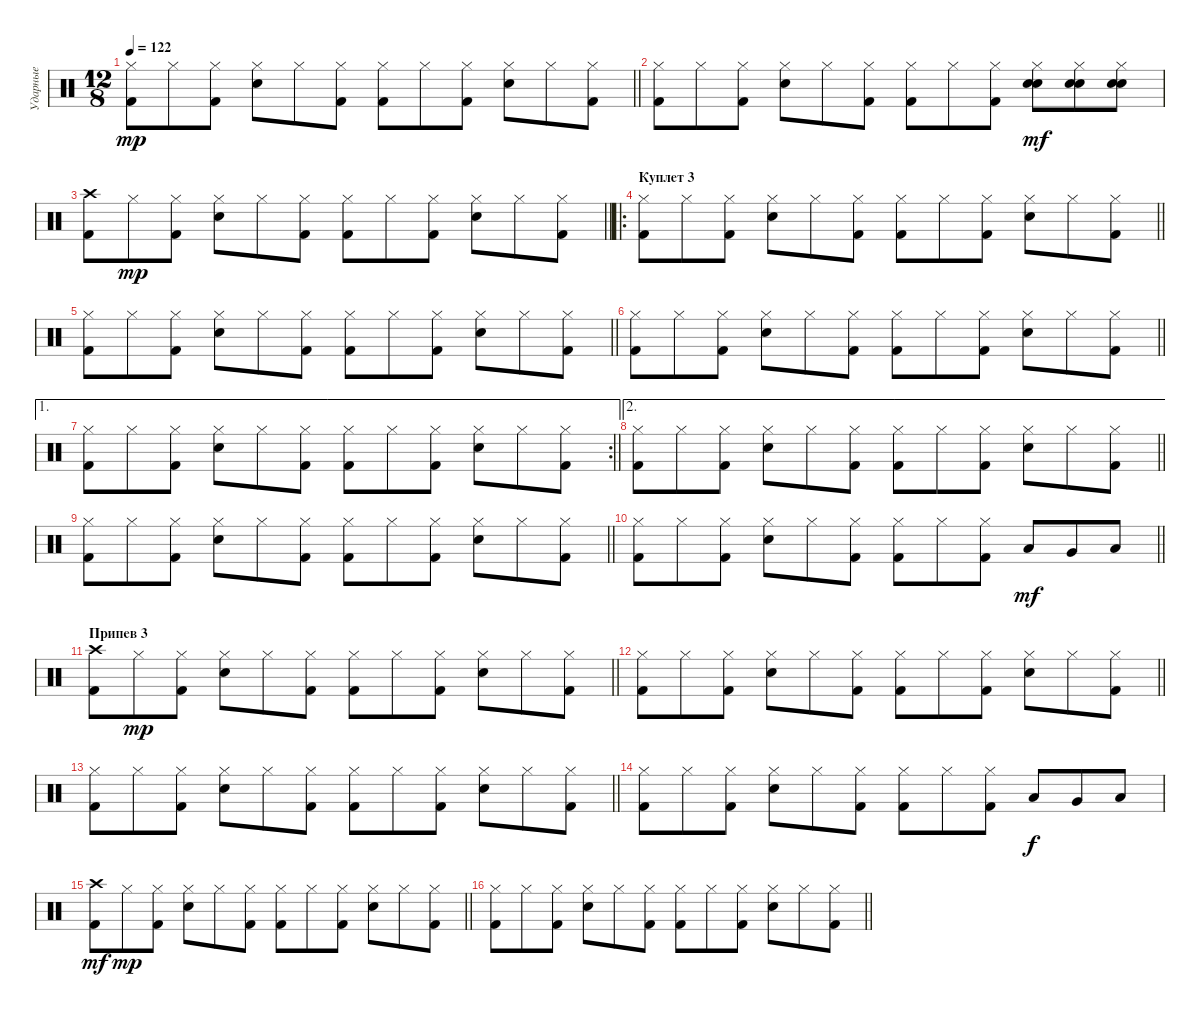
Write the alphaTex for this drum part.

\track ("Ударные" "Ударные") {instrument percussion}
\staff {score}
\articulation defaults
\ts (12 8)
\tempo 122
\clef neutral
\barLineRight lightlight
\ks c
("Hi-Hat (closed)" "Kick (hit) 2").8{dy mp} "Hi-Hat (closed)".8 ("Hi-Hat (closed)" "Kick (hit) 2").8 ("Hi-Hat (closed)" "Electric Snare (hit)").8 "Hi-Hat (closed)".8 ("Hi-Hat (closed)" "Kick (hit) 2").8 ("Hi-Hat (closed)" "Kick (hit) 2").8 "Hi-Hat (closed)".8 ("Hi-Hat (closed)" "Kick (hit) 2").8 ("Hi-Hat (closed)" "Electric Snare (hit)").8 "Hi-Hat (closed)".8 ("Hi-Hat (closed)" "Kick (hit) 2").8 |
("Hi-Hat (closed)" "Kick (hit) 2").8 "Hi-Hat (closed)".8 ("Hi-Hat (closed)" "Kick (hit) 2").8 ("Hi-Hat (closed)" "Electric Snare (hit)").8 "Hi-Hat (closed)".8 ("Hi-Hat (closed)" "Kick (hit) 2").8 ("Hi-Hat (closed)" "Kick (hit) 2").8 "Hi-Hat (closed)".8 ("Hi-Hat (closed)" "Kick (hit) 2").8 ("Hi-Hat (closed)" "Electric Snare (hit)" "Snare (hit) 2").8{dy mf} ("Hi-Hat (closed)" "Electric Snare (hit)" "Snare (hit) 2").8 ("Hi-Hat (closed)" "Electric Snare (hit)" "Snare (hit) 2").8 |
\barLineRight lightlight
("Crash high (hit)" "Kick (hit) 2").8 "Hi-Hat (closed)".8{dy mp} ("Hi-Hat (closed)" "Kick (hit) 2").8 ("Hi-Hat (closed)" "Electric Snare (hit)").8 "Hi-Hat (closed)".8 ("Hi-Hat (closed)" "Kick (hit) 2").8 ("Hi-Hat (closed)" "Kick (hit) 2").8 "Hi-Hat (closed)".8 ("Hi-Hat (closed)" "Kick (hit) 2").8 ("Hi-Hat (closed)" "Electric Snare (hit)").8 "Hi-Hat (closed)".8 ("Hi-Hat (closed)" "Kick (hit) 2").8 |
\ro
\section ("" "Куплет 3")
\barLineRight lightlight
("Hi-Hat (closed)" "Kick (hit) 2").8 "Hi-Hat (closed)".8 ("Hi-Hat (closed)" "Kick (hit) 2").8 ("Hi-Hat (closed)" "Electric Snare (hit)").8 "Hi-Hat (closed)".8 ("Hi-Hat (closed)" "Kick (hit) 2").8 ("Hi-Hat (closed)" "Kick (hit) 2").8 "Hi-Hat (closed)".8 ("Hi-Hat (closed)" "Kick (hit) 2").8 ("Hi-Hat (closed)" "Electric Snare (hit)").8 "Hi-Hat (closed)".8 ("Hi-Hat (closed)" "Kick (hit) 2").8 |
\barLineRight lightlight
("Hi-Hat (closed)" "Kick (hit) 2").8 "Hi-Hat (closed)".8 ("Hi-Hat (closed)" "Kick (hit) 2").8 ("Hi-Hat (closed)" "Electric Snare (hit)").8 "Hi-Hat (closed)".8 ("Hi-Hat (closed)" "Kick (hit) 2").8 ("Hi-Hat (closed)" "Kick (hit) 2").8 "Hi-Hat (closed)".8 ("Hi-Hat (closed)" "Kick (hit) 2").8 ("Hi-Hat (closed)" "Electric Snare (hit)").8 "Hi-Hat (closed)".8 ("Hi-Hat (closed)" "Kick (hit) 2").8 |
\barLineRight lightlight
("Hi-Hat (closed)" "Kick (hit) 2").8 "Hi-Hat (closed)".8 ("Hi-Hat (closed)" "Kick (hit) 2").8 ("Hi-Hat (closed)" "Electric Snare (hit)").8 "Hi-Hat (closed)".8 ("Hi-Hat (closed)" "Kick (hit) 2").8 ("Hi-Hat (closed)" "Kick (hit) 2").8 "Hi-Hat (closed)".8 ("Hi-Hat (closed)" "Kick (hit) 2").8 ("Hi-Hat (closed)" "Electric Snare (hit)").8 "Hi-Hat (closed)".8 ("Hi-Hat (closed)" "Kick (hit) 2").8 |
\ae 1
\rc 2
\barLineRight lightlight
("Hi-Hat (closed)" "Kick (hit) 2").8 "Hi-Hat (closed)".8 ("Hi-Hat (closed)" "Kick (hit) 2").8 ("Hi-Hat (closed)" "Electric Snare (hit)").8 "Hi-Hat (closed)".8 ("Hi-Hat (closed)" "Kick (hit) 2").8 ("Hi-Hat (closed)" "Kick (hit) 2").8 "Hi-Hat (closed)".8 ("Hi-Hat (closed)" "Kick (hit) 2").8 ("Hi-Hat (closed)" "Electric Snare (hit)").8 "Hi-Hat (closed)".8 ("Hi-Hat (closed)" "Kick (hit) 2").8 |
\ae 2
\barLineRight lightlight
("Hi-Hat (closed)" "Kick (hit) 2").8 "Hi-Hat (closed)".8 ("Hi-Hat (closed)" "Kick (hit) 2").8 ("Hi-Hat (closed)" "Electric Snare (hit)").8 "Hi-Hat (closed)".8 ("Hi-Hat (closed)" "Kick (hit) 2").8 ("Hi-Hat (closed)" "Kick (hit) 2").8 "Hi-Hat (closed)".8 ("Hi-Hat (closed)" "Kick (hit) 2").8 ("Hi-Hat (closed)" "Electric Snare (hit)").8 "Hi-Hat (closed)".8 ("Hi-Hat (closed)" "Kick (hit) 2").8 |
\barLineRight lightlight
("Hi-Hat (closed)" "Kick (hit) 2").8 "Hi-Hat (closed)".8 ("Hi-Hat (closed)" "Kick (hit) 2").8 ("Hi-Hat (closed)" "Electric Snare (hit)").8 "Hi-Hat (closed)".8 ("Hi-Hat (closed)" "Kick (hit) 2").8 ("Hi-Hat (closed)" "Kick (hit) 2").8 "Hi-Hat (closed)".8 ("Hi-Hat (closed)" "Kick (hit) 2").8 ("Hi-Hat (closed)" "Electric Snare (hit)").8 "Hi-Hat (closed)".8 ("Hi-Hat (closed)" "Kick (hit) 2").8 |
\barLineRight lightlight
("Hi-Hat (closed)" "Kick (hit) 2").8 "Hi-Hat (closed)".8 ("Hi-Hat (closed)" "Kick (hit) 2").8 ("Hi-Hat (closed)" "Electric Snare (hit)").8 "Hi-Hat (closed)".8 ("Hi-Hat (closed)" "Kick (hit) 2").8 ("Hi-Hat (closed)" "Kick (hit) 2").8 "Hi-Hat (closed)".8 ("Hi-Hat (closed)" "Kick (hit) 2").8 "Low Tom (hit)".8{dy mf} "Very Low Tom (hit)".8 "Low Floor Tom (hit)".8 |
\section ("" "Припев 3")
\barLineRight lightlight
("Crash high (hit)" "Kick (hit) 2").8 "Hi-Hat (closed)".8{dy mp} ("Hi-Hat (closed)" "Kick (hit) 2").8 ("Hi-Hat (closed)" "Electric Snare (hit)").8 "Hi-Hat (closed)".8 ("Hi-Hat (closed)" "Kick (hit) 2").8 ("Hi-Hat (closed)" "Kick (hit) 2").8 "Hi-Hat (closed)".8 ("Hi-Hat (closed)" "Kick (hit) 2").8 ("Hi-Hat (closed)" "Electric Snare (hit)").8 "Hi-Hat (closed)".8 ("Hi-Hat (closed)" "Kick (hit) 2").8 |
\barLineRight lightlight
("Hi-Hat (closed)" "Kick (hit) 2").8 "Hi-Hat (closed)".8 ("Hi-Hat (closed)" "Kick (hit) 2").8 ("Hi-Hat (closed)" "Electric Snare (hit)").8 "Hi-Hat (closed)".8 ("Hi-Hat (closed)" "Kick (hit) 2").8 ("Hi-Hat (closed)" "Kick (hit) 2").8 "Hi-Hat (closed)".8 ("Hi-Hat (closed)" "Kick (hit) 2").8 ("Hi-Hat (closed)" "Electric Snare (hit)").8 "Hi-Hat (closed)".8 ("Hi-Hat (closed)" "Kick (hit) 2").8 |
\barLineRight lightlight
("Hi-Hat (closed)" "Kick (hit) 2").8 "Hi-Hat (closed)".8 ("Hi-Hat (closed)" "Kick (hit) 2").8 ("Hi-Hat (closed)" "Electric Snare (hit)").8 "Hi-Hat (closed)".8 ("Hi-Hat (closed)" "Kick (hit) 2").8 ("Hi-Hat (closed)" "Kick (hit) 2").8 "Hi-Hat (closed)".8 ("Hi-Hat (closed)" "Kick (hit) 2").8 ("Hi-Hat (closed)" "Electric Snare (hit)").8 "Hi-Hat (closed)".8 ("Hi-Hat (closed)" "Kick (hit) 2").8 |
("Hi-Hat (closed)" "Kick (hit) 2").8 "Hi-Hat (closed)".8 ("Hi-Hat (closed)" "Kick (hit) 2").8 ("Hi-Hat (closed)" "Electric Snare (hit)").8 "Hi-Hat (closed)".8 ("Hi-Hat (closed)" "Kick (hit) 2").8 ("Hi-Hat (closed)" "Kick (hit) 2").8 "Hi-Hat (closed)".8 ("Hi-Hat (closed)" "Kick (hit) 2").8 "Low Tom (hit)".8{dy f} "Very Low Tom (hit)".8 "Low Floor Tom (hit)".8 |
\barLineRight lightlight
("Crash high (hit)" "Kick (hit) 2").8{dy mf} "Hi-Hat (closed)".8{dy mp} ("Hi-Hat (closed)" "Kick (hit) 2").8 ("Hi-Hat (closed)" "Electric Snare (hit)").8 "Hi-Hat (closed)".8 ("Hi-Hat (closed)" "Kick (hit) 2").8 ("Hi-Hat (closed)" "Kick (hit) 2").8 "Hi-Hat (closed)".8 ("Hi-Hat (closed)" "Kick (hit) 2").8 ("Hi-Hat (closed)" "Electric Snare (hit)").8 "Hi-Hat (closed)".8 ("Hi-Hat (closed)" "Kick (hit) 2").8 |
\barLineRight lightlight
("Hi-Hat (closed)" "Kick (hit) 2").8 "Hi-Hat (closed)".8 ("Hi-Hat (closed)" "Kick (hit) 2").8 ("Hi-Hat (closed)" "Electric Snare (hit)").8 "Hi-Hat (closed)".8 ("Hi-Hat (closed)" "Kick (hit) 2").8 ("Hi-Hat (closed)" "Kick (hit) 2").8 "Hi-Hat (closed)".8 ("Hi-Hat (closed)" "Kick (hit) 2").8 ("Hi-Hat (closed)" "Electric Snare (hit)").8 "Hi-Hat (closed)".8 ("Hi-Hat (closed)" "Kick (hit) 2").8
